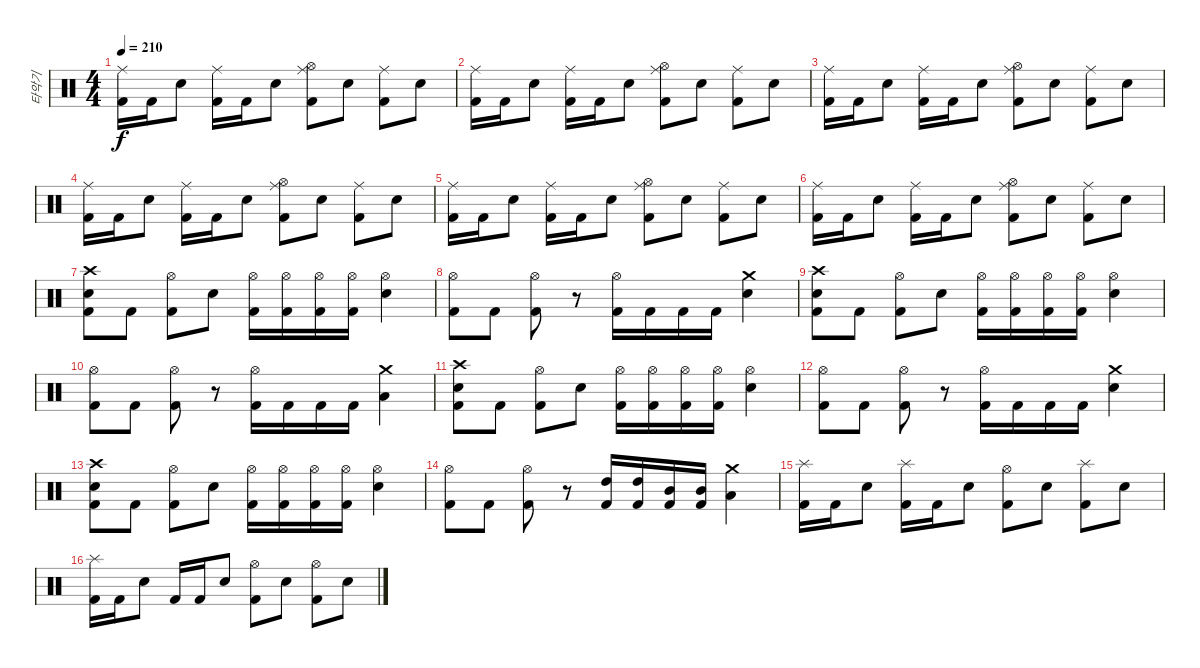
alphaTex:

\track ("타악기" "타악기") {instrument percussion}
\staff {score}
\articulation defaults
\ts (4 4)
\tempo 210
\clef neutral
\ks c
("Ride (middle)" "Kick (hit) 2").16{dy f} "Kick (hit) 2".16 "Snare (hit) 2".8 ("Ride (middle)" "Kick (hit) 2").16 "Kick (hit) 2".16 "Snare (hit) 2".8 ("Ride (middle)" "Hi-Hat (open)" "Kick (hit) 2").8 "Snare (hit) 2".8 ("Ride (middle)" "Kick (hit) 2").8 "Snare (hit) 2".8 |
("Ride (middle)" "Kick (hit) 2").16 "Kick (hit) 2".16 "Snare (hit) 2".8 ("Ride (middle)" "Kick (hit) 2").16 "Kick (hit) 2".16 "Snare (hit) 2".8 ("Ride (middle)" "Hi-Hat (open)" "Kick (hit) 2").8 "Snare (hit) 2".8 ("Ride (middle)" "Kick (hit) 2").8 "Snare (hit) 2".8 |
("Ride (middle)" "Kick (hit) 2").16 "Kick (hit) 2".16 "Snare (hit) 2".8 ("Ride (middle)" "Kick (hit) 2").16 "Kick (hit) 2".16 "Snare (hit) 2".8 ("Ride (middle)" "Hi-Hat (open)" "Kick (hit) 2").8 "Snare (hit) 2".8 ("Ride (middle)" "Kick (hit) 2").8 "Snare (hit) 2".8 |
("Ride (middle)" "Kick (hit) 2").16 "Kick (hit) 2".16 "Snare (hit) 2".8 ("Ride (middle)" "Kick (hit) 2").16 "Kick (hit) 2".16 "Snare (hit) 2".8 ("Ride (middle)" "Hi-Hat (open)" "Kick (hit) 2").8 "Snare (hit) 2".8 ("Ride (middle)" "Kick (hit) 2").8 "Snare (hit) 2".8 |
("Ride (middle)" "Kick (hit) 2").16 "Kick (hit) 2".16 "Snare (hit) 2".8 ("Ride (middle)" "Kick (hit) 2").16 "Kick (hit) 2".16 "Snare (hit) 2".8 ("Ride (middle)" "Hi-Hat (open)" "Kick (hit) 2").8 "Snare (hit) 2".8 ("Ride (middle)" "Kick (hit) 2").8 "Snare (hit) 2".8 |
("Ride (middle)" "Kick (hit) 2").16 "Kick (hit) 2".16 "Snare (hit) 2".8 ("Ride (middle)" "Kick (hit) 2").16 "Kick (hit) 2".16 "Snare (hit) 2".8 ("Ride (middle)" "Hi-Hat (open)" "Kick (hit) 2").8 "Snare (hit) 2".8 ("Ride (middle)" "Kick (hit) 2").8 "Snare (hit) 2".8 |
("Crash high (hit)" "Snare (hit) 2" "Kick (hit) 2").8 "Kick (hit) 2".8 ("Hi-Hat (open)" "Kick (hit) 2").8 "Snare (hit) 2".8 ("Hi-Hat (open)" "Kick (hit) 2").16 ("Hi-Hat (open)" "Kick (hit) 2").16 ("Hi-Hat (open)" "Kick (hit) 2").16 ("Hi-Hat (open)" "Kick (hit) 2").16 ("Hi-Hat (open)" "Snare (hit) 2").4 |
("Hi-Hat (open)" "Kick (hit) 2").8 "Kick (hit) 2".8 ("Hi-Hat (open)" "Kick (hit) 2").8 r.8 ("Hi-Hat (open)" "Kick (hit) 2").16 "Kick (hit) 2".16 "Kick (hit) 2".16 "Kick (hit) 2".16 ("Crash medium (hit)" "Electric Snare (hit)").4 |
("Crash high (hit)" "Snare (hit) 2" "Kick (hit) 2").8 "Kick (hit) 2".8 ("Hi-Hat (open)" "Kick (hit) 2").8 "Snare (hit) 2".8 ("Hi-Hat (open)" "Kick (hit) 2").16 ("Hi-Hat (open)" "Kick (hit) 2").16 ("Hi-Hat (open)" "Kick (hit) 2").16 ("Hi-Hat (open)" "Kick (hit) 2").16 ("Hi-Hat (open)" "Snare (hit) 2").4 |
("Hi-Hat (open)" "Kick (hit) 2").8 "Kick (hit) 2".8 ("Hi-Hat (open)" "Kick (hit) 2").8 r.8 ("Hi-Hat (open)" "Kick (hit) 2").16 "Kick (hit) 2".16 "Kick (hit) 2".16 "Kick (hit) 2".16 ("Crash medium (hit)" "Low Tom (hit)").4 |
("Crash high (hit)" "Snare (hit) 2" "Kick (hit) 2").8 "Kick (hit) 2".8 ("Hi-Hat (open)" "Kick (hit) 2").8 "Snare (hit) 2".8 ("Hi-Hat (open)" "Kick (hit) 2").16 ("Hi-Hat (open)" "Kick (hit) 2").16 ("Hi-Hat (open)" "Kick (hit) 2").16 ("Hi-Hat (open)" "Kick (hit) 2").16 ("Hi-Hat (open)" "Electric Snare (hit)").4 |
("Hi-Hat (open)" "Kick (hit) 2").8 "Kick (hit) 2".8 ("Hi-Hat (open)" "Kick (hit) 2").8 r.8 ("Hi-Hat (open)" "Kick (hit) 2").16 "Kick (hit) 2".16 "Kick (hit) 2".16 "Kick (hit) 2".16 ("Crash medium (hit)" "Electric Snare (hit)").4 |
("Crash high (hit)" "Snare (hit) 2" "Kick (hit) 2").8 "Kick (hit) 2".8 ("Hi-Hat (open)" "Kick (hit) 2").8 "Snare (hit) 2".8 ("Hi-Hat (open)" "Kick (hit) 2").16 ("Hi-Hat (open)" "Kick (hit) 2").16 ("Hi-Hat (open)" "Kick (hit) 2").16 ("Hi-Hat (open)" "Kick (hit) 2").16 ("Hi-Hat (open)" "Snare (hit) 2").4 |
("Hi-Hat (open)" "Kick (hit) 2").8 "Kick (hit) 2".8 ("Hi-Hat (open)" "Kick (hit) 2").8 r.8 ("High Tom (hit)" "Kick (hit) 2").16 ("High Tom (hit)" "Kick (hit) 2").16 ("Mid Tom (hit)" "Kick (hit) 2").16 ("Mid Tom (hit)" "Kick (hit) 2").16 ("Crash medium (hit)" "Low Tom (hit)").4 |
("Splash (hit)" "Kick (hit) 2").16 "Kick (hit) 2".16 "Snare (hit) 2".8 ("Splash (hit)" "Kick (hit) 2").16 "Kick (hit) 2".16 "Snare (hit) 2".8 ("Hi-Hat (open)" "Kick (hit) 2").8 "Snare (hit) 2".8 ("Splash (hit)" "Kick (hit) 2").8 "Snare (hit) 2".8 |
("Splash (hit)" "Kick (hit) 2").16 "Kick (hit) 2".16 "Snare (hit) 2".8 "Kick (hit) 2".16 "Kick (hit) 2".16 "Snare (hit) 2".8 ("Hi-Hat (open)" "Kick (hit) 2").8 "Snare (hit) 2".8 ("Hi-Hat (open)" "Kick (hit) 2").8 "Snare (hit) 2".8
